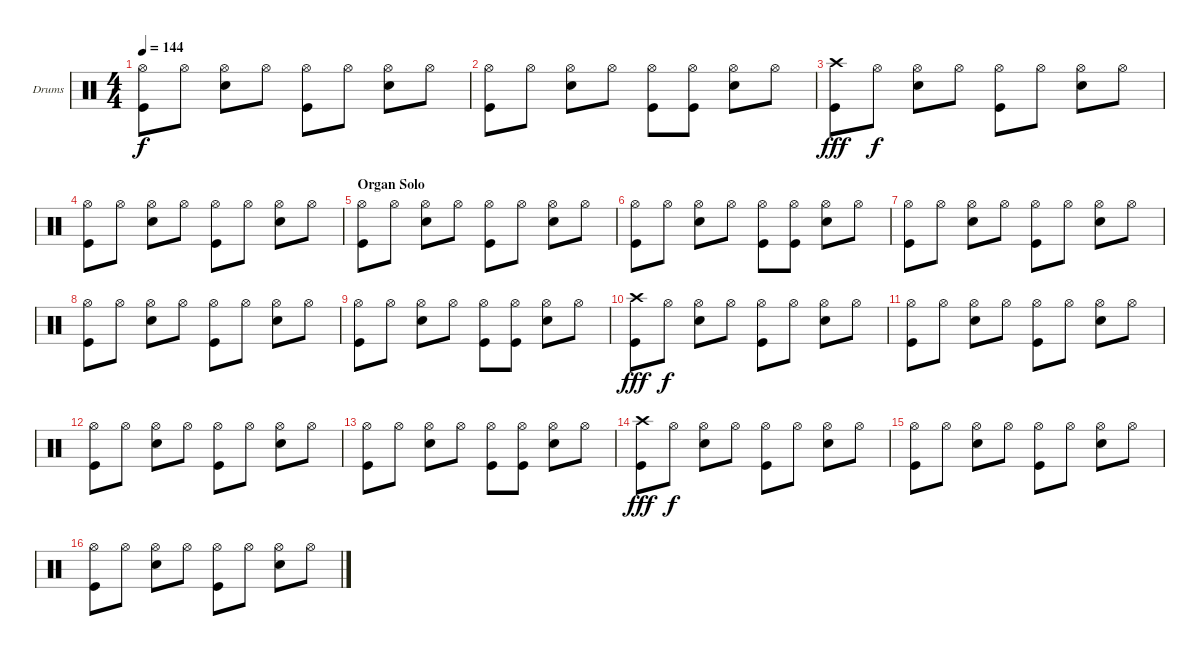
\bracketExtendMode groupsimilarinstruments
\firstSystemTrackNameOrientation horizontal
\otherSystemsTrackNameOrientation horizontal
\track ("Drums" "Drums") {instrument percussion}
\staff {score}
\articulation defaults
\ts (4 4)
\tempo 144
\clef neutral
\ks c
("Hi-Hat (open)" "Kick (hit)").8{dy f} "Hi-Hat (open)".8 ("Hi-Hat (open)" "Snare (hit) 2").8 "Hi-Hat (open)".8 ("Hi-Hat (open)" "Kick (hit)").8 "Hi-Hat (open)".8 ("Hi-Hat (open)" "Snare (hit) 2").8 "Hi-Hat (open)".8 |
("Hi-Hat (open)" "Kick (hit)").8 "Hi-Hat (open)".8 ("Hi-Hat (open)" "Snare (hit) 2").8 "Hi-Hat (open)".8 ("Hi-Hat (open)" "Kick (hit)").8 ("Hi-Hat (open)" "Kick (hit)").8 ("Hi-Hat (open)" "Snare (hit) 2").8 "Hi-Hat (open)".8 |
("Crash high (hit)" "Kick (hit)").8{dy fff} "Hi-Hat (open)".8{dy f} ("Hi-Hat (open)" "Snare (hit) 2").8 "Hi-Hat (open)".8 ("Hi-Hat (open)" "Kick (hit)").8 "Hi-Hat (open)".8 ("Hi-Hat (open)" "Snare (hit) 2").8 "Hi-Hat (open)".8 |
("Hi-Hat (open)" "Kick (hit)").8 "Hi-Hat (open)".8 ("Hi-Hat (open)" "Snare (hit) 2").8 "Hi-Hat (open)".8 ("Hi-Hat (open)" "Kick (hit)").8 "Hi-Hat (open)".8 ("Hi-Hat (open)" "Snare (hit) 2").8 "Hi-Hat (open)".8 |
\section ("" "Organ Solo")
("Hi-Hat (open)" "Kick (hit)").8 "Hi-Hat (open)".8 ("Hi-Hat (open)" "Snare (hit) 2").8 "Hi-Hat (open)".8 ("Hi-Hat (open)" "Kick (hit)").8 "Hi-Hat (open)".8 ("Hi-Hat (open)" "Snare (hit) 2").8 "Hi-Hat (open)".8 |
("Hi-Hat (open)" "Kick (hit)").8 "Hi-Hat (open)".8 ("Hi-Hat (open)" "Snare (hit) 2").8 "Hi-Hat (open)".8 ("Hi-Hat (open)" "Kick (hit)").8 ("Hi-Hat (open)" "Kick (hit)").8 ("Hi-Hat (open)" "Snare (hit) 2").8 "Hi-Hat (open)".8 |
("Hi-Hat (open)" "Kick (hit)").8 "Hi-Hat (open)".8 ("Hi-Hat (open)" "Snare (hit) 2").8 "Hi-Hat (open)".8 ("Hi-Hat (open)" "Kick (hit)").8 "Hi-Hat (open)".8 ("Hi-Hat (open)" "Snare (hit) 2").8 "Hi-Hat (open)".8 |
("Hi-Hat (open)" "Kick (hit)").8 "Hi-Hat (open)".8 ("Hi-Hat (open)" "Snare (hit) 2").8 "Hi-Hat (open)".8 ("Hi-Hat (open)" "Kick (hit)").8 "Hi-Hat (open)".8 ("Hi-Hat (open)" "Snare (hit) 2").8 "Hi-Hat (open)".8 |
("Hi-Hat (open)" "Kick (hit)").8 "Hi-Hat (open)".8 ("Hi-Hat (open)" "Snare (hit) 2").8 "Hi-Hat (open)".8 ("Hi-Hat (open)" "Kick (hit)").8 ("Hi-Hat (open)" "Kick (hit)").8 ("Hi-Hat (open)" "Snare (hit) 2").8 "Hi-Hat (open)".8 |
("Crash high (hit)" "Kick (hit)").8{dy fff} "Hi-Hat (open)".8{dy f} ("Hi-Hat (open)" "Snare (hit) 2").8 "Hi-Hat (open)".8 ("Hi-Hat (open)" "Kick (hit)").8 "Hi-Hat (open)".8 ("Hi-Hat (open)" "Snare (hit) 2").8 "Hi-Hat (open)".8 |
("Hi-Hat (open)" "Kick (hit)").8 "Hi-Hat (open)".8 ("Hi-Hat (open)" "Snare (hit) 2").8 "Hi-Hat (open)".8 ("Hi-Hat (open)" "Kick (hit)").8 "Hi-Hat (open)".8 ("Hi-Hat (open)" "Snare (hit) 2").8 "Hi-Hat (open)".8 |
("Hi-Hat (open)" "Kick (hit)").8 "Hi-Hat (open)".8 ("Hi-Hat (open)" "Snare (hit) 2").8 "Hi-Hat (open)".8 ("Hi-Hat (open)" "Kick (hit)").8 "Hi-Hat (open)".8 ("Hi-Hat (open)" "Snare (hit) 2").8 "Hi-Hat (open)".8 |
("Hi-Hat (open)" "Kick (hit)").8 "Hi-Hat (open)".8 ("Hi-Hat (open)" "Snare (hit) 2").8 "Hi-Hat (open)".8 ("Hi-Hat (open)" "Kick (hit)").8 ("Hi-Hat (open)" "Kick (hit)").8 ("Hi-Hat (open)" "Snare (hit) 2").8 "Hi-Hat (open)".8 |
("Crash high (hit)" "Kick (hit)").8{dy fff} "Hi-Hat (open)".8{dy f} ("Hi-Hat (open)" "Snare (hit) 2").8 "Hi-Hat (open)".8 ("Hi-Hat (open)" "Kick (hit)").8 "Hi-Hat (open)".8 ("Hi-Hat (open)" "Snare (hit) 2").8 "Hi-Hat (open)".8 |
("Hi-Hat (open)" "Kick (hit)").8 "Hi-Hat (open)".8 ("Hi-Hat (open)" "Snare (hit) 2").8 "Hi-Hat (open)".8 ("Hi-Hat (open)" "Kick (hit)").8 "Hi-Hat (open)".8 ("Hi-Hat (open)" "Snare (hit) 2").8 "Hi-Hat (open)".8 |
("Hi-Hat (open)" "Kick (hit)").8 "Hi-Hat (open)".8 ("Hi-Hat (open)" "Snare (hit) 2").8 "Hi-Hat (open)".8 ("Hi-Hat (open)" "Kick (hit)").8 "Hi-Hat (open)".8 ("Hi-Hat (open)" "Snare (hit) 2").8 "Hi-Hat (open)".8
